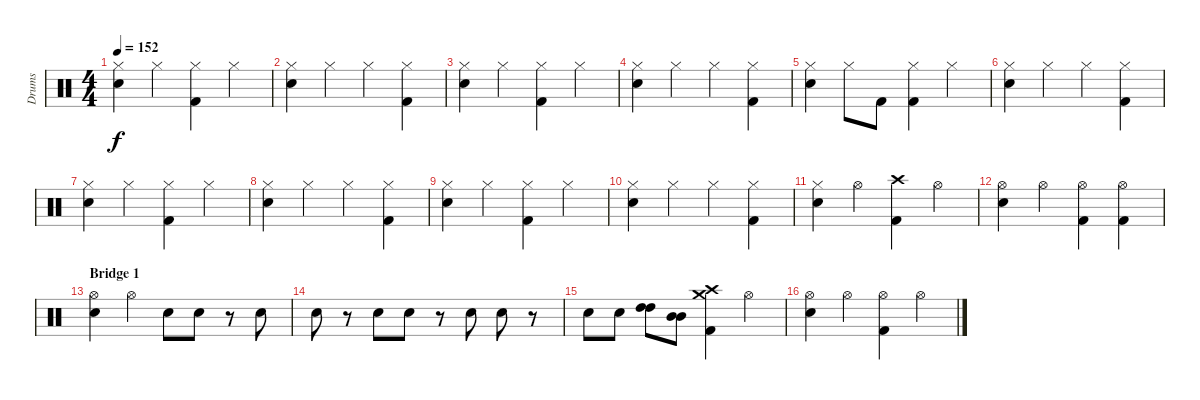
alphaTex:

\track ("Drums" "Drums") {instrument percussion}
\staff {score}
\articulation defaults
\ts (4 4)
\tempo 152
\clef neutral
\ks c
("Electric Snare (hit)" "Hi-Hat (closed)").4{dy f} "Hi-Hat (closed)".4 ("Kick (hit) 2" "Hi-Hat (closed)").4 "Hi-Hat (closed)".4 |
("Electric Snare (hit)" "Hi-Hat (closed)").4 "Hi-Hat (closed)".4 "Hi-Hat (closed)".4 ("Kick (hit) 2" "Hi-Hat (closed)").4 |
("Electric Snare (hit)" "Hi-Hat (closed)").4 "Hi-Hat (closed)".4 ("Kick (hit) 2" "Hi-Hat (closed)").4 "Hi-Hat (closed)".4 |
("Electric Snare (hit)" "Hi-Hat (closed)").4 "Hi-Hat (closed)".4 "Hi-Hat (closed)".4 ("Kick (hit) 2" "Hi-Hat (closed)").4 |
("Electric Snare (hit)" "Hi-Hat (closed)").4 "Hi-Hat (closed)".8 "Kick (hit) 2".8 ("Kick (hit) 2" "Hi-Hat (closed)").4 "Hi-Hat (closed)".4 |
("Electric Snare (hit)" "Hi-Hat (closed)").4 "Hi-Hat (closed)".4 "Hi-Hat (closed)".4 ("Kick (hit) 2" "Hi-Hat (closed)").4 |
("Electric Snare (hit)" "Hi-Hat (closed)").4 "Hi-Hat (closed)".4 ("Kick (hit) 2" "Hi-Hat (closed)").4 "Hi-Hat (closed)".4 |
("Electric Snare (hit)" "Hi-Hat (closed)").4 "Hi-Hat (closed)".4 "Hi-Hat (closed)".4 ("Kick (hit) 2" "Hi-Hat (closed)").4 |
("Electric Snare (hit)" "Hi-Hat (closed)").4 "Hi-Hat (closed)".4 ("Kick (hit) 2" "Hi-Hat (closed)").4 "Hi-Hat (closed)".4 |
("Electric Snare (hit)" "Hi-Hat (closed)").4 "Hi-Hat (closed)".4 "Hi-Hat (closed)".4 ("Kick (hit) 2" "Hi-Hat (closed)").4 |
("Electric Snare (hit)" "Hi-Hat (closed)").4 "Hi-Hat (open)".4 ("Kick (hit) 2" "Crash high (hit)").4 "Hi-Hat (open)".4 |
("Electric Snare (hit)" "Hi-Hat (open)").4 "Hi-Hat (open)".4 ("Kick (hit) 2" "Hi-Hat (open)").4 ("Kick (hit) 2" "Hi-Hat (open)").4 |
\section ("" "Bridge 1")
("Electric Snare (hit)" "Hi-Hat (open)").4 "Hi-Hat (open)".4 "Electric Snare (hit)".8 "Electric Snare (hit)".8 r.8 "Electric Snare (hit)".8 |
"Electric Snare (hit)".8 r.8 "Electric Snare (hit)".8 "Electric Snare (hit)".8 r.8 "Electric Snare (hit)".8 "Electric Snare (hit)".8 r.8 |
"Electric Snare (hit)".8 "Electric Snare (hit)".8 ("High Tom (hit)" "High Tom (hit)").8 ("Mid Tom (hit)" "Mid Tom (hit)").8 ("Kick (hit) 2" "Crash high (hit)" "Crash medium (hit)").4 "Hi-Hat (open)".4 |
("Electric Snare (hit)" "Hi-Hat (open)").4 "Hi-Hat (open)".4 ("Kick (hit) 2" "Hi-Hat (open)").4 "Hi-Hat (open)".4
